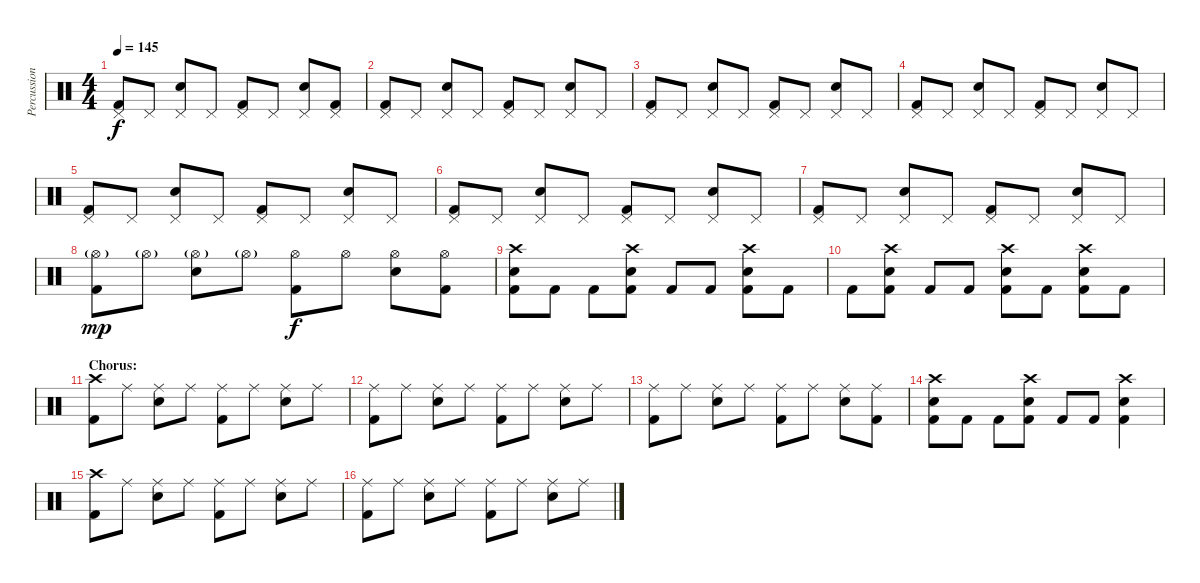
\track ("Percussion" "Percussion") {instrument percussion}
\staff {score}
\articulation defaults
\ts (4 4)
\tempo 145
\clef neutral
\ks c
("Pedal Hi-Hat (hit)" "Kick (hit) 2").8{dy f} "Pedal Hi-Hat (hit)".8 ("Pedal Hi-Hat (hit)" "Electric Snare (hit)").8 "Pedal Hi-Hat (hit)".8 ("Pedal Hi-Hat (hit)" "Kick (hit) 2").8 "Pedal Hi-Hat (hit)".8 ("Pedal Hi-Hat (hit)" "Electric Snare (hit)").8 ("Pedal Hi-Hat (hit)" "Kick (hit) 2").8 |
("Pedal Hi-Hat (hit)" "Kick (hit) 2").8 "Pedal Hi-Hat (hit)".8 ("Pedal Hi-Hat (hit)" "Electric Snare (hit)").8 "Pedal Hi-Hat (hit)".8 ("Pedal Hi-Hat (hit)" "Kick (hit) 2").8 "Pedal Hi-Hat (hit)".8 ("Pedal Hi-Hat (hit)" "Electric Snare (hit)").8 "Pedal Hi-Hat (hit)".8 |
("Pedal Hi-Hat (hit)" "Kick (hit) 2").8 "Pedal Hi-Hat (hit)".8 ("Pedal Hi-Hat (hit)" "Electric Snare (hit)").8 "Pedal Hi-Hat (hit)".8 ("Pedal Hi-Hat (hit)" "Kick (hit) 2").8 "Pedal Hi-Hat (hit)".8 ("Pedal Hi-Hat (hit)" "Electric Snare (hit)").8 "Pedal Hi-Hat (hit)".8 |
("Pedal Hi-Hat (hit)" "Kick (hit) 2").8 "Pedal Hi-Hat (hit)".8 ("Pedal Hi-Hat (hit)" "Electric Snare (hit)").8 "Pedal Hi-Hat (hit)".8 ("Pedal Hi-Hat (hit)" "Kick (hit) 2").8 "Pedal Hi-Hat (hit)".8 ("Pedal Hi-Hat (hit)" "Electric Snare (hit)").8 "Pedal Hi-Hat (hit)".8 |
("Pedal Hi-Hat (hit)" "Kick (hit) 2").8 "Pedal Hi-Hat (hit)".8 ("Pedal Hi-Hat (hit)" "Electric Snare (hit)").8 "Pedal Hi-Hat (hit)".8 ("Pedal Hi-Hat (hit)" "Kick (hit) 2").8 "Pedal Hi-Hat (hit)".8 ("Pedal Hi-Hat (hit)" "Electric Snare (hit)").8 "Pedal Hi-Hat (hit)".8 |
("Pedal Hi-Hat (hit)" "Kick (hit) 2").8 "Pedal Hi-Hat (hit)".8 ("Pedal Hi-Hat (hit)" "Electric Snare (hit)").8 "Pedal Hi-Hat (hit)".8 ("Pedal Hi-Hat (hit)" "Kick (hit) 2").8 "Pedal Hi-Hat (hit)".8 ("Pedal Hi-Hat (hit)" "Electric Snare (hit)").8 "Pedal Hi-Hat (hit)".8 |
("Pedal Hi-Hat (hit)" "Kick (hit) 2").8 "Pedal Hi-Hat (hit)".8 ("Pedal Hi-Hat (hit)" "Electric Snare (hit)").8 "Pedal Hi-Hat (hit)".8 ("Pedal Hi-Hat (hit)" "Kick (hit) 2").8 "Pedal Hi-Hat (hit)".8 ("Pedal Hi-Hat (hit)" "Electric Snare (hit)").8 "Pedal Hi-Hat (hit)".8 |
("Hi-Hat (open)"{g} "Kick (hit) 2").8{dy mp} "Hi-Hat (open)"{g}.8 ("Hi-Hat (open)"{g} "Electric Snare (hit)").8 "Hi-Hat (open)"{g}.8 ("Hi-Hat (open)" "Kick (hit) 2").8{dy f} "Hi-Hat (open)".8 ("Hi-Hat (open)" "Electric Snare (hit)").8 ("Hi-Hat (open)" "Kick (hit) 2").8 |
("Crash high (hit)" "Electric Snare (hit)" "Kick (hit) 2").8 "Kick (hit) 2".8 "Kick (hit) 2".8 ("Crash high (hit)" "Electric Snare (hit)" "Kick (hit) 2").8 "Kick (hit) 2".8 "Kick (hit) 2".8 ("Crash high (hit)" "Electric Snare (hit)" "Kick (hit) 2").8 "Kick (hit) 2".8 |
"Kick (hit) 2".8 ("Crash high (hit)" "Electric Snare (hit)" "Kick (hit) 2").8 "Kick (hit) 2".8 "Kick (hit) 2".8 ("Crash high (hit)" "Electric Snare (hit)" "Kick (hit) 2").8 "Kick (hit) 2".8 ("Crash high (hit)" "Electric Snare (hit)" "Kick (hit) 2").8 "Kick (hit) 2".8 |
\section ("" "Chorus:")
("Crash high (hit)" "Kick (hit) 2").8 "Ride (middle)".8 ("Ride (middle)" "Electric Snare (hit)").8 "Ride (middle)".8 ("Ride (middle)" "Kick (hit) 2").8 "Ride (middle)".8 ("Ride (middle)" "Electric Snare (hit)").8 "Ride (middle)".8 |
("Ride (middle)" "Kick (hit) 2").8 "Ride (middle)".8 ("Ride (middle)" "Electric Snare (hit)").8 "Ride (middle)".8 ("Ride (middle)" "Kick (hit) 2").8 "Ride (middle)".8 ("Ride (middle)" "Electric Snare (hit)").8 "Ride (middle)".8 |
("Ride (middle)" "Kick (hit) 2").8 "Ride (middle)".8 ("Ride (middle)" "Electric Snare (hit)").8 "Ride (middle)".8 ("Ride (middle)" "Kick (hit) 2").8 "Ride (middle)".8 ("Ride (middle)" "Electric Snare (hit)").8 ("Ride (middle)" "Kick (hit) 2").8 |
("Crash high (hit)" "Electric Snare (hit)" "Kick (hit) 2").8 "Kick (hit) 2".8 "Kick (hit) 2".8 ("Crash high (hit)" "Electric Snare (hit)" "Kick (hit) 2").8 "Kick (hit) 2".8 "Kick (hit) 2".8 ("Crash high (hit)" "Electric Snare (hit)" "Kick (hit) 2").4 |
("Crash high (hit)" "Kick (hit) 2").8 "Ride (middle)".8 ("Ride (middle)" "Electric Snare (hit)").8 "Ride (middle)".8 ("Ride (middle)" "Kick (hit) 2").8 "Ride (middle)".8 ("Ride (middle)" "Electric Snare (hit)").8 "Ride (middle)".8 |
("Ride (middle)" "Kick (hit) 2").8 "Ride (middle)".8 ("Ride (middle)" "Electric Snare (hit)").8 "Ride (middle)".8 ("Ride (middle)" "Kick (hit) 2").8 "Ride (middle)".8 ("Ride (middle)" "Electric Snare (hit)").8 "Ride (middle)".8
